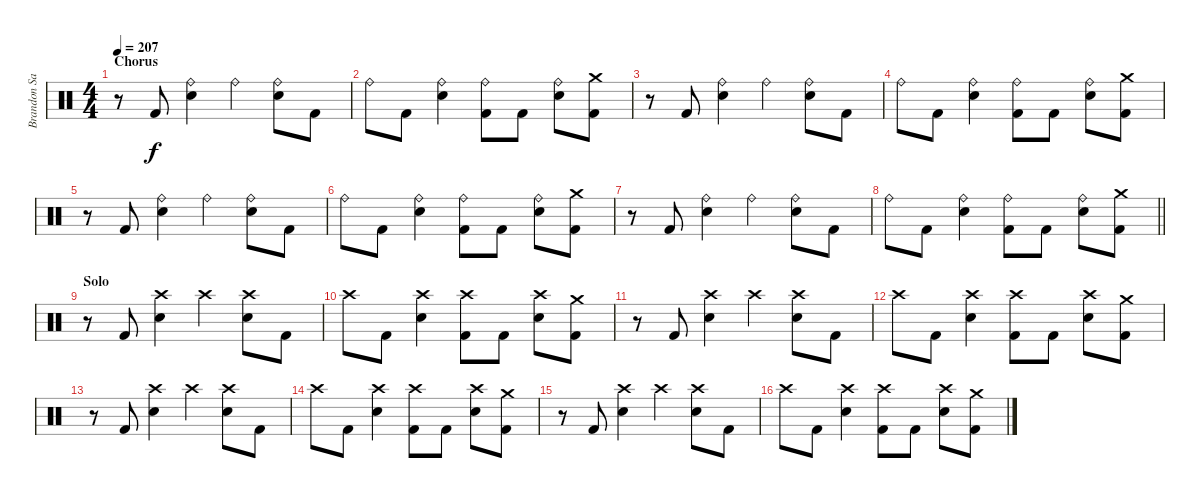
\track ("Brandon Saller" "Brandon Sa") {instrument percussion}
\staff {score}
\articulation defaults
\ts (4 4)
\section ("" "Chorus")
\tempo 207
\clef neutral
\ks c
r.8{dy f} "Kick (hit) 2".8 ("Ride (bell)" "Electric Snare (hit)").4 "Ride (bell)".4 ("Ride (bell)" "Electric Snare (hit)").8 "Kick (hit) 2".8 |
"Ride (bell)".8 "Kick (hit) 2".8 ("Ride (bell)" "Electric Snare (hit)").4 ("Ride (bell)" "Kick (hit) 2").8 "Kick (hit) 2".8 ("Ride (bell)" "Electric Snare (hit)").8 ("Crash medium (hit)" "Kick (hit) 2").8 |
r.8 "Kick (hit) 2".8 ("Ride (bell)" "Electric Snare (hit)").4 "Ride (bell)".4 ("Ride (bell)" "Electric Snare (hit)").8 "Kick (hit) 2".8 |
"Ride (bell)".8 "Kick (hit) 2".8 ("Ride (bell)" "Electric Snare (hit)").4 ("Ride (bell)" "Kick (hit) 2").8 "Kick (hit) 2".8 ("Ride (bell)" "Electric Snare (hit)").8 ("Crash medium (hit)" "Kick (hit) 2").8 |
r.8 "Kick (hit) 2".8 ("Ride (bell)" "Electric Snare (hit)").4 "Ride (bell)".4 ("Ride (bell)" "Electric Snare (hit)").8 "Kick (hit) 2".8 |
"Ride (bell)".8 "Kick (hit) 2".8 ("Ride (bell)" "Electric Snare (hit)").4 ("Ride (bell)" "Kick (hit) 2").8 "Kick (hit) 2".8 ("Ride (bell)" "Electric Snare (hit)").8 ("Crash medium (hit)" "Kick (hit) 2").8 |
r.8 "Kick (hit) 2".8 ("Ride (bell)" "Electric Snare (hit)").4 "Ride (bell)".4 ("Ride (bell)" "Electric Snare (hit)").8 "Kick (hit) 2".8 |
\barLineRight lightlight "Ride (bell)".8 "Kick (hit) 2".8
("Ride (bell)" "Electric Snare (hit)").4 ("Ride (bell)" "Kick (hit) 2").8 "Kick (hit) 2".8 ("Ride (bell)" "Electric Snare (hit)").8 ("Crash medium (hit)" "Kick (hit) 2").8 |
\section ("" "Solo")
r.8 "Kick (hit) 2".8 ("Crash high (hit)" "Electric Snare (hit)").4 "Crash high (hit)".4 ("Crash high (hit)" "Electric Snare (hit)").8 "Kick (hit) 2".8 |
"Crash high (hit)".8 "Kick (hit) 2".8 ("Crash high (hit)" "Electric Snare (hit)").4 ("Crash high (hit)" "Kick (hit) 2").8 "Kick (hit) 2".8 ("Crash high (hit)" "Electric Snare (hit)").8 ("Crash medium (hit)" "Kick (hit) 2").8 |
r.8 "Kick (hit) 2".8 ("Crash high (hit)" "Electric Snare (hit)").4 "Crash high (hit)".4 ("Crash high (hit)" "Electric Snare (hit)").8 "Kick (hit) 2".8 |
"Crash high (hit)".8 "Kick (hit) 2".8 ("Crash high (hit)" "Electric Snare (hit)").4 ("Crash high (hit)" "Kick (hit) 2").8 "Kick (hit) 2".8 ("Crash high (hit)" "Electric Snare (hit)").8 ("Crash medium (hit)" "Kick (hit) 2").8 |
r.8 "Kick (hit) 2".8 ("Crash high (hit)" "Electric Snare (hit)").4 "Crash high (hit)".4 ("Crash high (hit)" "Electric Snare (hit)").8 "Kick (hit) 2".8 |
"Crash high (hit)".8 "Kick (hit) 2".8 ("Crash high (hit)" "Electric Snare (hit)").4 ("Crash high (hit)" "Kick (hit) 2").8 "Kick (hit) 2".8 ("Crash high (hit)" "Electric Snare (hit)").8 ("Crash medium (hit)" "Kick (hit) 2").8 |
r.8 "Kick (hit) 2".8 ("Crash high (hit)" "Electric Snare (hit)").4 "Crash high (hit)".4 ("Crash high (hit)" "Electric Snare (hit)").8 "Kick (hit) 2".8 |
"Crash high (hit)".8 "Kick (hit) 2".8 ("Crash high (hit)" "Electric Snare (hit)").4 ("Crash high (hit)" "Kick (hit) 2").8 "Kick (hit) 2".8 ("Crash high (hit)" "Electric Snare (hit)").8 ("Crash medium (hit)" "Kick (hit) 2").8
